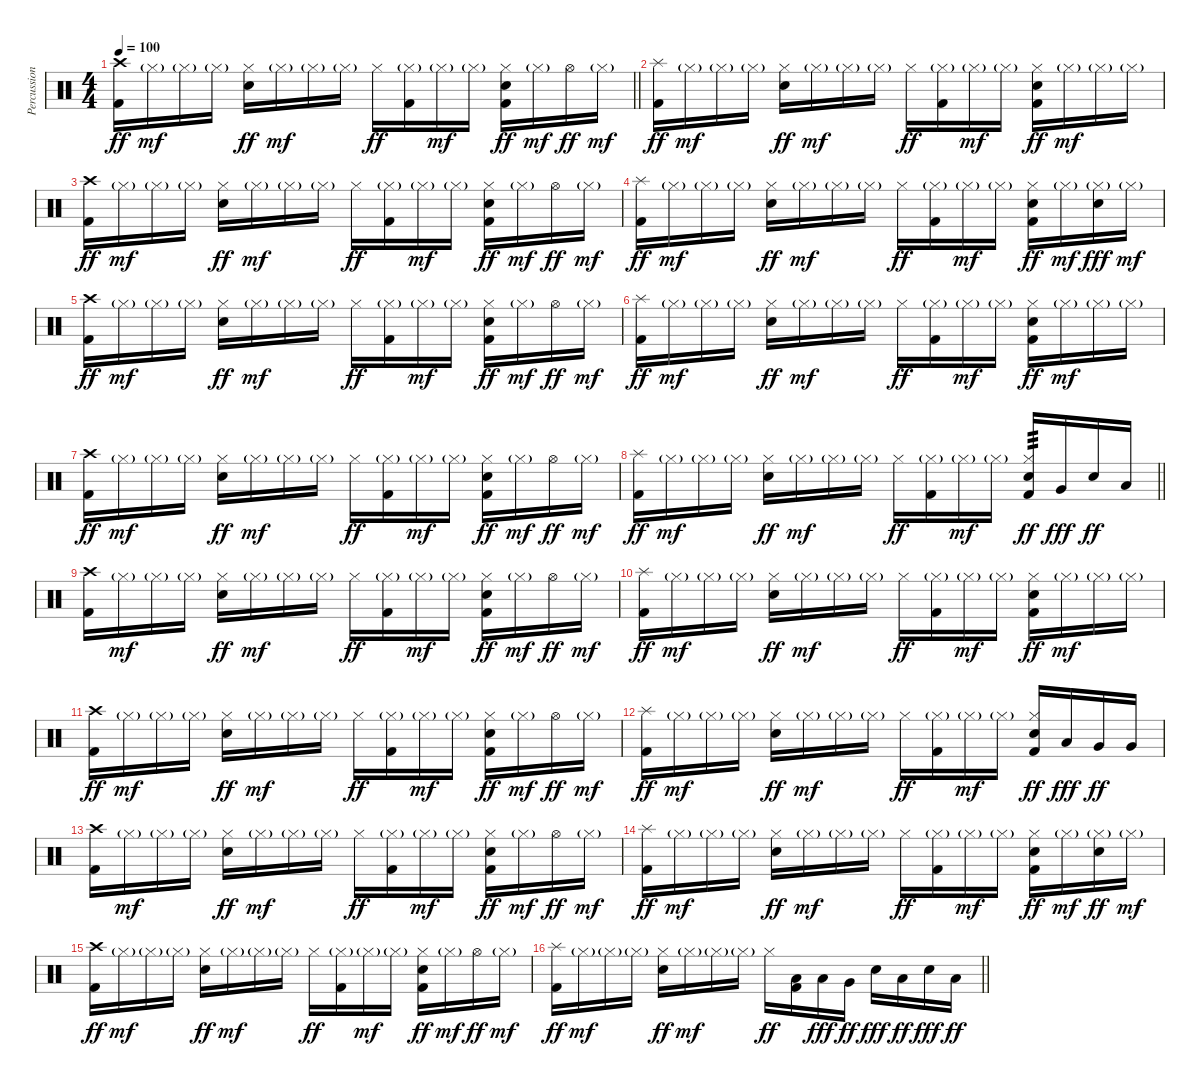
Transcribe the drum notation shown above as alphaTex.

\track ("Percussion" "Percussion") {instrument percussion}
\staff {score}
\articulation defaults
\ts (4 4)
\tempo 100
\clef neutral
\barLineRight lightlight
\ks c
("Crash high (hit)" "Kick (hit) 2").16{dy ff} "Hi-Hat (closed)"{g}.16{dy mf} "Hi-Hat (closed)"{g}.16 "Hi-Hat (closed)"{g}.16 ("Hi-Hat (closed)" "Snare (hit) 2").16{dy ff} "Hi-Hat (closed)"{g}.16{dy mf} "Hi-Hat (closed)"{g}.16 "Hi-Hat (closed)"{g}.16 "Hi-Hat (closed)".16{dy ff} ("Hi-Hat (closed)"{g} "Kick (hit) 2").16 "Hi-Hat (closed)"{g}.16{dy mf} "Hi-Hat (closed)"{g}.16 ("Hi-Hat (closed)" "Snare (hit) 2" "Kick (hit) 2").16{dy ff} "Hi-Hat (closed)"{g}.16{dy mf} "Hi-Hat (open)".16{dy ff} "Hi-Hat (closed)"{g}.16{dy mf} |
("Splash (hit)" "Kick (hit) 2").16{dy ff} "Hi-Hat (closed)"{g}.16{dy mf} "Hi-Hat (closed)"{g}.16 "Hi-Hat (closed)"{g}.16 ("Hi-Hat (closed)" "Snare (hit) 2").16{dy ff} "Hi-Hat (closed)"{g}.16{dy mf} "Hi-Hat (closed)"{g}.16 "Hi-Hat (closed)"{g}.16 "Hi-Hat (closed)".16{dy ff} ("Hi-Hat (closed)"{g} "Kick (hit) 2").16 "Hi-Hat (closed)"{g}.16{dy mf} "Hi-Hat (closed)"{g}.16 ("Hi-Hat (closed)" "Snare (hit) 2" "Kick (hit) 2").16{dy ff} "Hi-Hat (closed)"{g}.16{dy mf} "Hi-Hat (closed)"{g}.16 "Hi-Hat (closed)"{g}.16 |
("Crash high (hit)" "Kick (hit) 2").16{dy ff} "Hi-Hat (closed)"{g}.16{dy mf} "Hi-Hat (closed)"{g}.16 "Hi-Hat (closed)"{g}.16 ("Hi-Hat (closed)" "Snare (hit) 2").16{dy ff} "Hi-Hat (closed)"{g}.16{dy mf} "Hi-Hat (closed)"{g}.16 "Hi-Hat (closed)"{g}.16 "Hi-Hat (closed)".16{dy ff} ("Hi-Hat (closed)"{g} "Kick (hit) 2").16 "Hi-Hat (closed)"{g}.16{dy mf} "Hi-Hat (closed)"{g}.16 ("Hi-Hat (closed)" "Snare (hit) 2" "Kick (hit) 2").16{dy ff} "Hi-Hat (closed)"{g}.16{dy mf} "Hi-Hat (open)".16{dy ff} "Hi-Hat (closed)"{g}.16{dy mf} |
("Splash (hit)" "Kick (hit) 2").16{dy ff} "Hi-Hat (closed)"{g}.16{dy mf} "Hi-Hat (closed)"{g}.16 "Hi-Hat (closed)"{g}.16 ("Hi-Hat (closed)" "Snare (hit) 2").16{dy ff} "Hi-Hat (closed)"{g}.16{dy mf} "Hi-Hat (closed)"{g}.16 "Hi-Hat (closed)"{g}.16 "Hi-Hat (closed)".16{dy ff} ("Hi-Hat (closed)"{g} "Kick (hit) 2").16 "Hi-Hat (closed)"{g}.16{dy mf} "Hi-Hat (closed)"{g}.16 ("Hi-Hat (closed)" "Snare (hit) 2" "Kick (hit) 2").16{dy ff} "Hi-Hat (closed)"{g}.16{dy mf} ("Hi-Hat (closed)"{g} "Snare (hit) 2").16{dy fff} "Hi-Hat (closed)"{g}.16{dy mf} |
("Crash high (hit)" "Kick (hit) 2").16{dy ff} "Hi-Hat (closed)"{g}.16{dy mf} "Hi-Hat (closed)"{g}.16 "Hi-Hat (closed)"{g}.16 ("Hi-Hat (closed)" "Snare (hit) 2").16{dy ff} "Hi-Hat (closed)"{g}.16{dy mf} "Hi-Hat (closed)"{g}.16 "Hi-Hat (closed)"{g}.16 "Hi-Hat (closed)".16{dy ff} ("Hi-Hat (closed)"{g} "Kick (hit) 2").16 "Hi-Hat (closed)"{g}.16{dy mf} "Hi-Hat (closed)"{g}.16 ("Hi-Hat (closed)" "Snare (hit) 2" "Kick (hit) 2").16{dy ff} "Hi-Hat (closed)"{g}.16{dy mf} "Hi-Hat (open)".16{dy ff} "Hi-Hat (closed)"{g}.16{dy mf} |
("Splash (hit)" "Kick (hit) 2").16{dy ff} "Hi-Hat (closed)"{g}.16{dy mf} "Hi-Hat (closed)"{g}.16 "Hi-Hat (closed)"{g}.16 ("Hi-Hat (closed)" "Snare (hit) 2").16{dy ff} "Hi-Hat (closed)"{g}.16{dy mf} "Hi-Hat (closed)"{g}.16 "Hi-Hat (closed)"{g}.16 "Hi-Hat (closed)".16{dy ff} ("Hi-Hat (closed)"{g} "Kick (hit) 2").16 "Hi-Hat (closed)"{g}.16{dy mf} "Hi-Hat (closed)"{g}.16 ("Hi-Hat (closed)" "Snare (hit) 2" "Kick (hit) 2").16{dy ff} "Hi-Hat (closed)"{g}.16{dy mf} "Hi-Hat (closed)"{g}.16 "Hi-Hat (closed)"{g}.16 |
("Crash high (hit)" "Kick (hit) 2").16{dy ff} "Hi-Hat (closed)"{g}.16{dy mf} "Hi-Hat (closed)"{g}.16 "Hi-Hat (closed)"{g}.16 ("Hi-Hat (closed)" "Snare (hit) 2").16{dy ff} "Hi-Hat (closed)"{g}.16{dy mf} "Hi-Hat (closed)"{g}.16 "Hi-Hat (closed)"{g}.16 "Hi-Hat (closed)".16{dy ff} ("Hi-Hat (closed)"{g} "Kick (hit) 2").16 "Hi-Hat (closed)"{g}.16{dy mf} "Hi-Hat (closed)"{g}.16 ("Hi-Hat (closed)" "Snare (hit) 2" "Kick (hit) 2").16{dy ff} "Hi-Hat (closed)"{g}.16{dy mf} "Hi-Hat (open)".16{dy ff} "Hi-Hat (closed)"{g}.16{dy mf} |
\barLineRight lightlight
("Splash (hit)" "Kick (hit) 2").16{dy ff} "Hi-Hat (closed)"{g}.16{dy mf} "Hi-Hat (closed)"{g}.16 "Hi-Hat (closed)"{g}.16 ("Hi-Hat (closed)" "Snare (hit) 2").16{dy ff} "Hi-Hat (closed)"{g}.16{dy mf} "Hi-Hat (closed)"{g}.16 "Hi-Hat (closed)"{g}.16 "Hi-Hat (closed)".16{dy ff} ("Hi-Hat (closed)"{g} "Kick (hit) 2").16 "Hi-Hat (closed)"{g}.16{dy mf} "Hi-Hat (closed)"{g}.16 ("Hi-Hat (closed)" "Snare (hit) 2" "Kick (hit) 2").16{tp 3 dy ff} "Very Low Tom (hit)".16{dy fff} "Snare (hit) 2".16{dy ff} "Low Floor Tom (hit)".16 |
("Crash high (hit)" "Kick (hit) 2").16 "Hi-Hat (closed)"{g}.16{dy mf} "Hi-Hat (closed)"{g}.16 "Hi-Hat (closed)"{g}.16 ("Hi-Hat (closed)" "Snare (hit) 2").16{dy ff} "Hi-Hat (closed)"{g}.16{dy mf} "Hi-Hat (closed)"{g}.16 "Hi-Hat (closed)"{g}.16 "Hi-Hat (closed)".16{dy ff} ("Hi-Hat (closed)"{g} "Kick (hit) 2").16 "Hi-Hat (closed)"{g}.16{dy mf} "Hi-Hat (closed)"{g}.16 ("Hi-Hat (closed)" "Snare (hit) 2" "Kick (hit) 2").16{dy ff} "Hi-Hat (closed)"{g}.16{dy mf} "Hi-Hat (open)".16{dy ff} "Hi-Hat (closed)"{g}.16{dy mf} |
("Splash (hit)" "Kick (hit) 2").16{dy ff} "Hi-Hat (closed)"{g}.16{dy mf} "Hi-Hat (closed)"{g}.16 "Hi-Hat (closed)"{g}.16 ("Hi-Hat (closed)" "Snare (hit) 2").16{dy ff} "Hi-Hat (closed)"{g}.16{dy mf} "Hi-Hat (closed)"{g}.16 "Hi-Hat (closed)"{g}.16 "Hi-Hat (closed)".16{dy ff} ("Hi-Hat (closed)"{g} "Kick (hit) 2").16 "Hi-Hat (closed)"{g}.16{dy mf} "Hi-Hat (closed)"{g}.16 ("Hi-Hat (closed)" "Snare (hit) 2" "Kick (hit) 2").16{dy ff} "Hi-Hat (closed)"{g}.16{dy mf} "Hi-Hat (closed)"{g}.16 "Hi-Hat (closed)"{g}.16 |
("Crash high (hit)" "Kick (hit) 2").16{dy ff} "Hi-Hat (closed)"{g}.16{dy mf} "Hi-Hat (closed)"{g}.16 "Hi-Hat (closed)"{g}.16 ("Hi-Hat (closed)" "Snare (hit) 2").16{dy ff} "Hi-Hat (closed)"{g}.16{dy mf} "Hi-Hat (closed)"{g}.16 "Hi-Hat (closed)"{g}.16 "Hi-Hat (closed)".16{dy ff} ("Hi-Hat (closed)"{g} "Kick (hit) 2").16 "Hi-Hat (closed)"{g}.16{dy mf} "Hi-Hat (closed)"{g}.16 ("Hi-Hat (closed)" "Snare (hit) 2" "Kick (hit) 2").16{dy ff} "Hi-Hat (closed)"{g}.16{dy mf} "Hi-Hat (open)".16{dy ff} "Hi-Hat (closed)"{g}.16{dy mf} |
("Splash (hit)" "Kick (hit) 2").16{dy ff} "Hi-Hat (closed)"{g}.16{dy mf} "Hi-Hat (closed)"{g}.16 "Hi-Hat (closed)"{g}.16 ("Hi-Hat (closed)" "Snare (hit) 2").16{dy ff} "Hi-Hat (closed)"{g}.16{dy mf} "Hi-Hat (closed)"{g}.16 "Hi-Hat (closed)"{g}.16 "Hi-Hat (closed)".16{dy ff} ("Hi-Hat (closed)"{g} "Kick (hit) 2").16 "Hi-Hat (closed)"{g}.16{dy mf} "Hi-Hat (closed)"{g}.16 ("Hi-Hat (closed)" "Snare (hit) 2" "Kick (hit) 2").16{dy ff} "Low Floor Tom (hit)".16{dy fff} "Very Low Tom (hit)".16{dy ff} "Very Low Tom (hit)".16 |
("Crash high (hit)" "Kick (hit) 2").16 "Hi-Hat (closed)"{g}.16{dy mf} "Hi-Hat (closed)"{g}.16 "Hi-Hat (closed)"{g}.16 ("Hi-Hat (closed)" "Snare (hit) 2").16{dy ff} "Hi-Hat (closed)"{g}.16{dy mf} "Hi-Hat (closed)"{g}.16 "Hi-Hat (closed)"{g}.16 "Hi-Hat (closed)".16{dy ff} ("Hi-Hat (closed)"{g} "Kick (hit) 2").16 "Hi-Hat (closed)"{g}.16{dy mf} "Hi-Hat (closed)"{g}.16 ("Hi-Hat (closed)" "Snare (hit) 2" "Kick (hit) 2").16{dy ff} "Hi-Hat (closed)"{g}.16{dy mf} "Hi-Hat (open)".16{dy ff} "Hi-Hat (closed)"{g}.16{dy mf} |
("Splash (hit)" "Kick (hit) 2").16{dy ff} "Hi-Hat (closed)"{g}.16{dy mf} "Hi-Hat (closed)"{g}.16 "Hi-Hat (closed)"{g}.16 ("Hi-Hat (closed)" "Snare (hit) 2").16{dy ff} "Hi-Hat (closed)"{g}.16{dy mf} "Hi-Hat (closed)"{g}.16 "Hi-Hat (closed)"{g}.16 "Hi-Hat (closed)".16{dy ff} ("Hi-Hat (closed)"{g} "Kick (hit) 2").16 "Hi-Hat (closed)"{g}.16{dy mf} "Hi-Hat (closed)"{g}.16 ("Hi-Hat (closed)" "Snare (hit) 2" "Kick (hit) 2").16{dy ff} "Hi-Hat (closed)"{g}.16{dy mf} ("Hi-Hat (closed)"{g} "Snare (hit) 2").16{dy ff} "Hi-Hat (closed)"{g}.16{dy mf} |
("Crash high (hit)" "Kick (hit) 2").16{dy ff} "Hi-Hat (closed)"{g}.16{dy mf} "Hi-Hat (closed)"{g}.16 "Hi-Hat (closed)"{g}.16 ("Hi-Hat (closed)" "Snare (hit) 2").16{dy ff} "Hi-Hat (closed)"{g}.16{dy mf} "Hi-Hat (closed)"{g}.16 "Hi-Hat (closed)"{g}.16 "Hi-Hat (closed)".16{dy ff} ("Hi-Hat (closed)"{g} "Kick (hit) 2").16 "Hi-Hat (closed)"{g}.16{dy mf} "Hi-Hat (closed)"{g}.16 ("Hi-Hat (closed)" "Snare (hit) 2" "Kick (hit) 2").16{dy ff} "Hi-Hat (closed)"{g}.16{dy mf} "Hi-Hat (open)".16{dy ff} "Hi-Hat (closed)"{g}.16{dy mf} |
\barLineRight lightlight
("Splash (hit)" "Kick (hit) 2").16{dy ff} "Hi-Hat (closed)"{g}.16{dy mf} "Hi-Hat (closed)"{g}.16 "Hi-Hat (closed)"{g}.16 ("Hi-Hat (closed)" "Snare (hit) 2").16{dy ff} "Hi-Hat (closed)"{g}.16{dy mf} "Hi-Hat (closed)"{g}.16 "Hi-Hat (closed)"{g}.16 "Hi-Hat (closed)".16{dy ff} ("Low Tom (hit)" "Kick (hit) 2").16 "Low Tom (hit)".16{dy fff} "Very Low Tom (hit)".16{dy ff} "Snare (hit) 2".16{dy fff} "Low Floor Tom (hit)".16{dy ff} "Snare (hit) 2".16{dy fff} "Low Floor Tom (hit)".16{dy ff}
